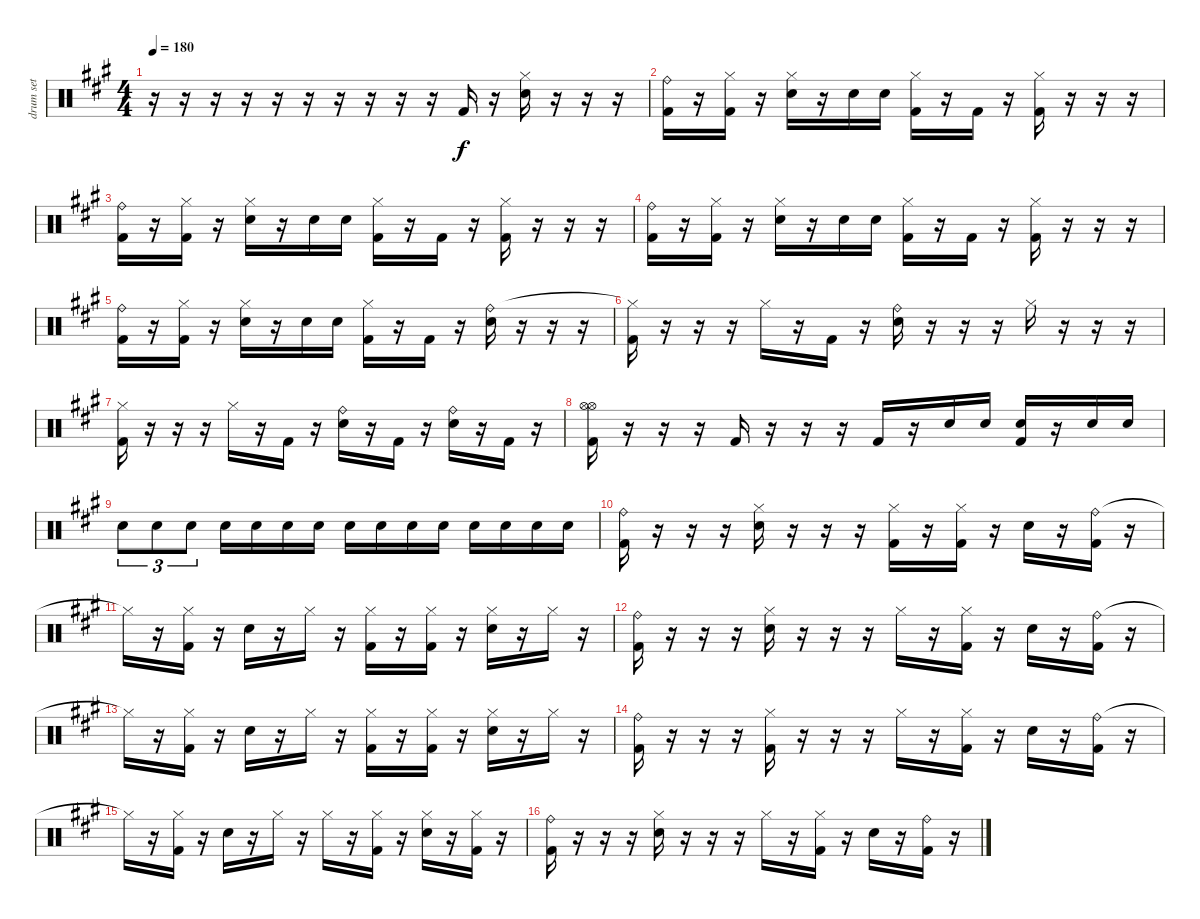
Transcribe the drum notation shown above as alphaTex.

\track ("drum set" "drum set") {instrument percussion}
\staff {score}
\articulation defaults
\ts (4 4)
\tempo 180
\clef neutral
\ks a
r.16{dy f} r.16 r.16 r.16 r.16 r.16 r.16 r.16 r.16 r.16 "Kick (hit) 2".16 r.16 ("Hi-Hat (closed)" "Snare (hit) 2").16 r.16 r.16 r.16 |
("Ride (bell)" "Kick (hit) 2").16 r.16 ("Hi-Hat (closed)" "Kick (hit) 2").16 r.16 ("Hi-Hat (closed)" "Snare (hit) 2").16 r.16 "Snare (hit) 2".16 "Snare (hit) 2".16 ("Hi-Hat (closed)" "Kick (hit) 2").16 r.16 "Kick (hit) 2".16 r.16 ("Hi-Hat (closed)" "Kick (hit) 2").16 r.16 r.16 r.16 |
("Ride (bell)" "Kick (hit) 2").16 r.16 ("Hi-Hat (closed)" "Kick (hit) 2").16 r.16 ("Hi-Hat (closed)" "Snare (hit) 2").16 r.16 "Snare (hit) 2".16 "Snare (hit) 2".16 ("Hi-Hat (closed)" "Kick (hit) 2").16 r.16 "Kick (hit) 2".16 r.16 ("Hi-Hat (closed)" "Kick (hit) 2").16 r.16 r.16 r.16 |
("Ride (bell)" "Kick (hit) 2").16 r.16 ("Hi-Hat (closed)" "Kick (hit) 2").16 r.16 ("Hi-Hat (closed)" "Snare (hit) 2").16 r.16 "Snare (hit) 2".16 "Snare (hit) 2".16 ("Hi-Hat (closed)" "Kick (hit) 2").16 r.16 "Kick (hit) 2".16 r.16 ("Hi-Hat (closed)" "Kick (hit) 2").16 r.16 r.16 r.16 |
("Ride (bell)" "Kick (hit) 2").16 r.16 ("Hi-Hat (closed)" "Kick (hit) 2").16 r.16 ("Hi-Hat (closed)" "Snare (hit) 2").16 r.16 "Snare (hit) 2".16 "Snare (hit) 2".16 ("Hi-Hat (closed)" "Kick (hit) 2").16 r.16 "Kick (hit) 2".16 r.16 ("Ride (bell)" "Snare (hit) 2").16 r.16 r.16 r.16 |
("Hi-Hat (closed)"{t} "Kick (hit) 2").16 r.16 r.16 r.16 "Hi-Hat (closed)".16 r.16 "Kick (hit) 2".16 r.16 ("Ride (bell)" "Snare (hit) 2").16 r.16 r.16 r.16 "Hi-Hat (closed)".16 r.16 r.16 r.16 |
("Hi-Hat (closed)" "Kick (hit) 2").16 r.16 r.16 r.16 "Hi-Hat (closed)".16 r.16 "Kick (hit) 2".16 r.16 ("Ride (bell)" "Snare (hit) 2").16 r.16 "Kick (hit) 2".16 r.16 ("Ride (bell)" "Snare (hit) 2").16 r.16 "Kick (hit) 2".16 r.16 |
("Hi-Hat (open)" "Hi-Hat (open)" "Kick (hit) 2").16 r.16 r.16 r.16 "Kick (hit) 2".16 r.16 r.16 r.16 "Kick (hit) 2".16 r.16 "Snare (hit) 2".16 "Snare (hit) 2".16 ("Snare (hit) 2" "Kick (hit) 2").16 r.16 "Snare (hit) 2".16 "Snare (hit) 2".16 |
"Snare (hit) 2".8{tu (3 2)} "Snare (hit) 2".8{tu (3 2)} "Snare (hit) 2".8{tu (3 2)} "Snare (hit) 2".16 "Snare (hit) 2".16 "Snare (hit) 2".16 "Snare (hit) 2".16 "Snare (hit) 2".16 "Snare (hit) 2".16 "Snare (hit) 2".16 "Snare (hit) 2".16 "Snare (hit) 2".16 "Snare (hit) 2".16 "Snare (hit) 2".16 "Snare (hit) 2".16 |
("Ride (bell)" "Kick (hit) 2").16 r.16 r.16 r.16 ("Hi-Hat (closed)" "Snare (hit) 2").16 r.16 r.16 r.16 ("Hi-Hat (closed)" "Kick (hit) 2").16 r.16 ("Hi-Hat (closed)" "Kick (hit) 2").16 r.16 "Snare (hit) 2".16 r.16 ("Ride (bell)" "Kick (hit) 2").16 r.16 |
"Hi-Hat (closed)"{t}.16 r.16 ("Hi-Hat (closed)" "Kick (hit) 2").16 r.16 "Snare (hit) 2".16 r.16 "Hi-Hat (closed)".16 r.16 ("Hi-Hat (closed)" "Kick (hit) 2").16 r.16 ("Hi-Hat (closed)" "Kick (hit) 2").16 r.16 ("Hi-Hat (closed)" "Snare (hit) 2").16 r.16 "Hi-Hat (closed)".16 r.16 |
("Ride (bell)" "Kick (hit) 2").16 r.16 r.16 r.16 ("Hi-Hat (closed)" "Snare (hit) 2").16 r.16 r.16 r.16 "Hi-Hat (closed)".16 r.16 ("Hi-Hat (closed)" "Kick (hit) 2").16 r.16 "Snare (hit) 2".16 r.16 ("Ride (bell)" "Kick (hit) 2").16 r.16 |
"Hi-Hat (closed)"{t}.16 r.16 ("Hi-Hat (closed)" "Kick (hit) 2").16 r.16 "Snare (hit) 2".16 r.16 "Hi-Hat (closed)".16 r.16 ("Hi-Hat (closed)" "Kick (hit) 2").16 r.16 ("Hi-Hat (closed)" "Kick (hit) 2").16 r.16 ("Hi-Hat (closed)" "Snare (hit) 2").16 r.16 "Hi-Hat (closed)".16 r.16 |
("Ride (bell)" "Kick (hit) 2").16 r.16 r.16 r.16 ("Hi-Hat (closed)" "Kick (hit) 2").16 r.16 r.16 r.16 "Hi-Hat (closed)".16 r.16 ("Hi-Hat (closed)" "Kick (hit) 2").16 r.16 "Snare (hit) 2".16 r.16 ("Ride (bell)" "Kick (hit) 2").16 r.16 |
"Hi-Hat (closed)"{t}.16 r.16 ("Hi-Hat (closed)" "Kick (hit) 2").16 r.16 "Snare (hit) 2".16 r.16 "Hi-Hat (closed)".16 r.16 "Hi-Hat (closed)".16 r.16 ("Hi-Hat (closed)" "Kick (hit) 2").16 r.16 ("Hi-Hat (closed)" "Snare (hit) 2").16 r.16 ("Hi-Hat (closed)" "Kick (hit) 2").16 r.16 |
("Ride (bell)" "Kick (hit) 2").16 r.16 r.16 r.16 ("Hi-Hat (closed)" "Snare (hit) 2").16 r.16 r.16 r.16 "Hi-Hat (closed)".16 r.16 ("Hi-Hat (closed)" "Kick (hit) 2").16 r.16 "Snare (hit) 2".16 r.16 ("Ride (bell)" "Kick (hit) 2").16 r.16
